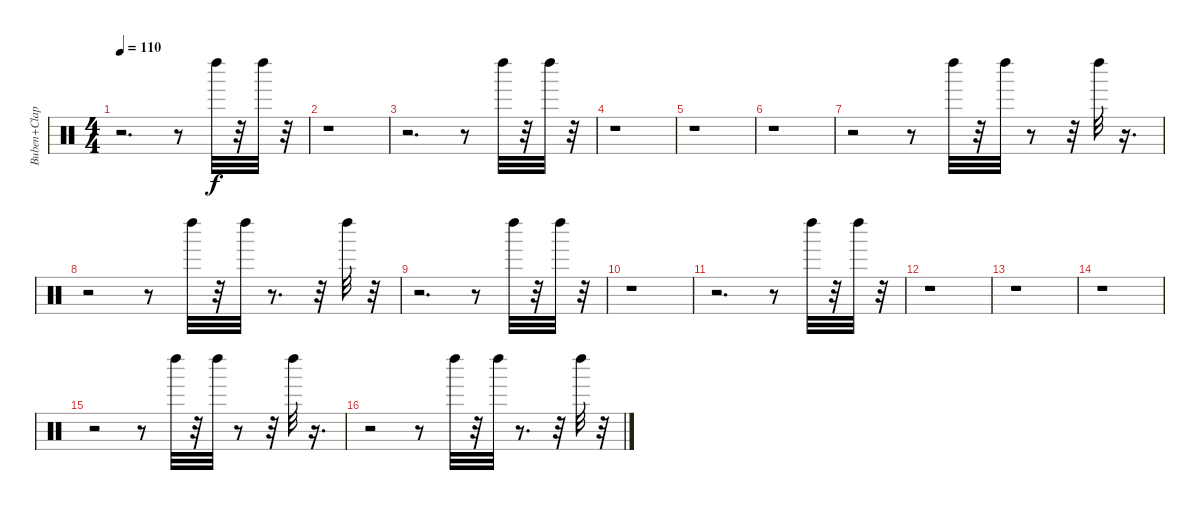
\track ("Buben+Clap" "Buben+Clap") {instrument percussion}
\staff {score}
\articulation defaults
\ts (4 4)
\tempo 110
\clef neutral
\ks c
r.2{d dy f} r.8 "Left Maraca (hit)".32 r.32 "Left Maraca (hit)".32 r.32 |
r.1 |
r.2{d} r.8 "Left Maraca (hit)".32 r.32 "Left Maraca (hit)".32 r.32 |
r.1 |
r.1 |
r.1 |
r.2 r.8 "Left Maraca (hit)".32 r.32 "Left Maraca (hit)".32 r.8 r.32 "Left Maraca (hit)".32 r.16{d} |
r.2 r.8 "Left Maraca (hit)".32 r.32 "Left Maraca (hit)".32 r.8{d} r.32 "Left Maraca (hit)".32 r.32 |
r.2{d} r.8 "Left Maraca (hit)".32 r.32 "Left Maraca (hit)".32 r.32 |
r.1 |
r.2{d} r.8 "Left Maraca (hit)".32 r.32 "Left Maraca (hit)".32 r.32 |
r.1 |
r.1 |
r.1 |
r.2 r.8 "Left Maraca (hit)".32 r.32 "Left Maraca (hit)".32 r.8 r.32 "Left Maraca (hit)".32 r.16{d} |
r.2 r.8 "Left Maraca (hit)".32 r.32 "Left Maraca (hit)".32 r.8{d} r.32 "Left Maraca (hit)".32 r.32
